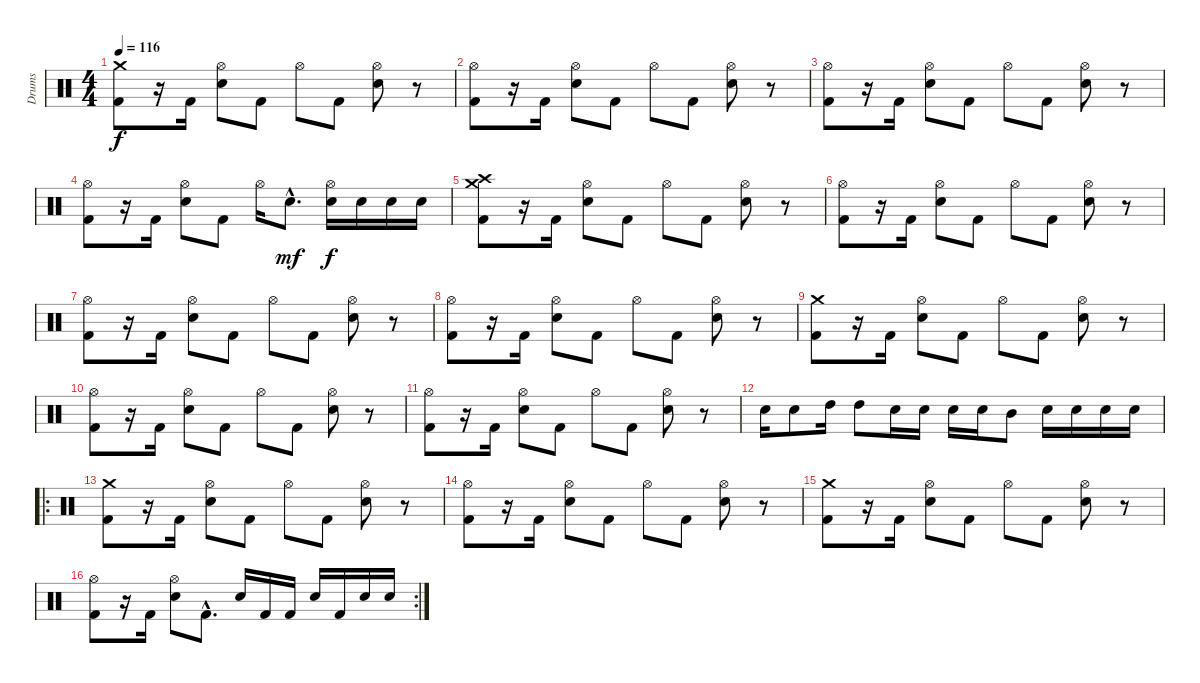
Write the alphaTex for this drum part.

\track ("Drums" "Drums") {instrument percussion}
\staff {score}
\articulation defaults
\ts (4 4)
\tempo 116
\clef neutral
\ks c
("Crash medium (hit)" "Kick (hit) 2").8{dy f} r.16 "Kick (hit) 2".16 ("Hi-Hat (open)" "Electric Snare (hit)").8 "Kick (hit) 2".8 "Hi-Hat (open)".8 "Kick (hit) 2".8 ("Hi-Hat (open)" "Electric Snare (hit)").8 r.8 |
("Hi-Hat (open)" "Kick (hit) 2").8 r.16 "Kick (hit) 2".16 ("Hi-Hat (open)" "Electric Snare (hit)").8 "Kick (hit) 2".8 "Hi-Hat (open)".8 "Kick (hit) 2".8 ("Hi-Hat (open)" "Electric Snare (hit)").8 r.8 |
("Hi-Hat (open)" "Kick (hit) 2").8 r.16 "Kick (hit) 2".16 ("Hi-Hat (open)" "Electric Snare (hit)").8 "Kick (hit) 2".8 "Hi-Hat (open)".8 "Kick (hit) 2".8 ("Hi-Hat (open)" "Electric Snare (hit)").8 r.8 |
("Hi-Hat (open)" "Kick (hit) 2").8 r.16 "Kick (hit) 2".16 ("Hi-Hat (open)" "Electric Snare (hit)").8 "Kick (hit) 2".8 "Hi-Hat (open)".16 "Electric Snare (hit)"{hac}.8{d dy mf} ("Hi-Hat (open)" "Electric Snare (hit)").16{dy f} "Electric Snare (hit)".16 "Electric Snare (hit)".16 "Electric Snare (hit)".16 |
("Crash medium (hit)" "Crash high (hit)" "Kick (hit) 2").8 r.16 "Kick (hit) 2".16 ("Hi-Hat (open)" "Electric Snare (hit)").8 "Kick (hit) 2".8 "Hi-Hat (open)".8 "Kick (hit) 2".8 ("Hi-Hat (open)" "Electric Snare (hit)").8 r.8 |
("Hi-Hat (open)" "Kick (hit) 2").8 r.16 "Kick (hit) 2".16 ("Hi-Hat (open)" "Electric Snare (hit)").8 "Kick (hit) 2".8 "Hi-Hat (open)".8 "Kick (hit) 2".8 ("Hi-Hat (open)" "Electric Snare (hit)").8 r.8 |
("Hi-Hat (open)" "Kick (hit) 2").8 r.16 "Kick (hit) 2".16 ("Hi-Hat (open)" "Electric Snare (hit)").8 "Kick (hit) 2".8 "Hi-Hat (open)".8 "Kick (hit) 2".8 ("Hi-Hat (open)" "Electric Snare (hit)").8 r.8 |
("Hi-Hat (open)" "Kick (hit) 2").8 r.16 "Kick (hit) 2".16 ("Hi-Hat (open)" "Electric Snare (hit)").8 "Kick (hit) 2".8 "Hi-Hat (open)".8 "Kick (hit) 2".8 ("Hi-Hat (open)" "Electric Snare (hit)").8 r.8 |
("Crash medium (hit)" "Kick (hit) 2").8 r.16 "Kick (hit) 2".16 ("Hi-Hat (open)" "Electric Snare (hit)").8 "Kick (hit) 2".8 "Hi-Hat (open)".8 "Kick (hit) 2".8 ("Hi-Hat (open)" "Electric Snare (hit)").8 r.8 |
("Hi-Hat (open)" "Kick (hit) 2").8 r.16 "Kick (hit) 2".16 ("Hi-Hat (open)" "Electric Snare (hit)").8 "Kick (hit) 2".8 "Hi-Hat (open)".8 "Kick (hit) 2".8 ("Hi-Hat (open)" "Electric Snare (hit)").8 r.8 |
("Hi-Hat (open)" "Kick (hit) 2").8 r.16 "Kick (hit) 2".16 ("Hi-Hat (open)" "Electric Snare (hit)").8 "Kick (hit) 2".8 "Hi-Hat (open)".8 "Kick (hit) 2".8 ("Hi-Hat (open)" "Electric Snare (hit)").8 r.8 |
"Electric Snare (hit)".16 "Electric Snare (hit)".8 "High Tom (hit)".16 "High Tom (hit)".8 "Electric Snare (hit)".16 "Electric Snare (hit)".16 "Electric Snare (hit)".16 "Electric Snare (hit)".16 "Mid Tom (hit)".8 "Electric Snare (hit)".16 "Electric Snare (hit)".16 "Electric Snare (hit)".16 "Electric Snare (hit)".16 |
\ro
("Crash medium (hit)" "Kick (hit) 2").8 r.16 "Kick (hit) 2".16 ("Hi-Hat (open)" "Electric Snare (hit)").8 "Kick (hit) 2".8 "Hi-Hat (open)".8 "Kick (hit) 2".8 ("Hi-Hat (open)" "Electric Snare (hit)").8 r.8 |
("Hi-Hat (open)" "Kick (hit) 2").8 r.16 "Kick (hit) 2".16 ("Hi-Hat (open)" "Electric Snare (hit)").8 "Kick (hit) 2".8 "Hi-Hat (open)".8 "Kick (hit) 2".8 ("Hi-Hat (open)" "Electric Snare (hit)").8 r.8 |
("Crash medium (hit)" "Kick (hit) 2").8 r.16 "Kick (hit) 2".16 ("Hi-Hat (open)" "Electric Snare (hit)").8 "Kick (hit) 2".8 "Hi-Hat (open)".8 "Kick (hit) 2".8 ("Hi-Hat (open)" "Electric Snare (hit)").8 r.8 |
\rc 2
("Hi-Hat (open)" "Kick (hit) 2").8 r.16 "Kick (hit) 2".16 ("Hi-Hat (open)" "Electric Snare (hit)").8 "Kick (hit) 2"{hac}.8{d} "Electric Snare (hit)".16 "Kick (hit) 2".16 "Kick (hit) 2".16 "Electric Snare (hit)".16 "Kick (hit) 2".16 "Electric Snare (hit)".16 "Electric Snare (hit)".16
